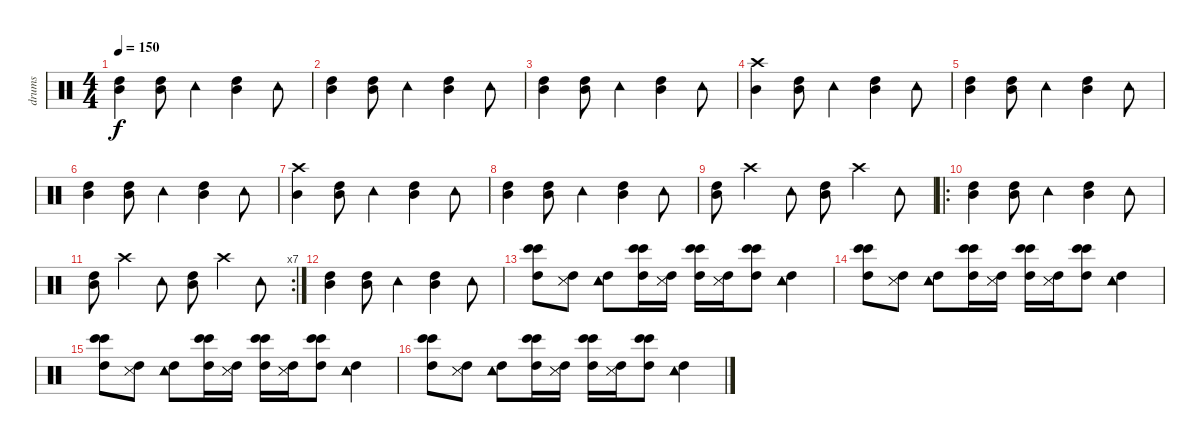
\track ("drums" "drums") {instrument percussion}
\staff {score}
\articulation defaults
\ts (4 4)
\tempo 150
\clef neutral
\ks c
("High Tom (hit)" "Mid Tom (hit)").4{dy f} ("High Tom (hit)" "Mid Tom (hit)").8 "Tambourine (hit)".4 ("High Tom (hit)" "Mid Tom (hit)").4 "Tambourine (hit)".8 |
("High Tom (hit)" "Mid Tom (hit)").4 ("High Tom (hit)" "Mid Tom (hit)").8 "Tambourine (hit)".4 ("High Tom (hit)" "Mid Tom (hit)").4 "Tambourine (hit)".8 |
("High Tom (hit)" "Mid Tom (hit)").4 ("High Tom (hit)" "Mid Tom (hit)").8 "Tambourine (hit)".4 ("High Tom (hit)" "Mid Tom (hit)").4 "Tambourine (hit)".8 |
("Crash high (hit)" "Mid Tom (hit)").4 ("High Tom (hit)" "Mid Tom (hit)").8 "Tambourine (hit)".4 ("High Tom (hit)" "Mid Tom (hit)").4 "Tambourine (hit)".8 |
("High Tom (hit)" "Mid Tom (hit)").4 ("High Tom (hit)" "Mid Tom (hit)").8 "Tambourine (hit)".4 ("High Tom (hit)" "Mid Tom (hit)").4 "Tambourine (hit)".8 |
("High Tom (hit)" "Mid Tom (hit)").4 ("High Tom (hit)" "Mid Tom (hit)").8 "Tambourine (hit)".4 ("High Tom (hit)" "Mid Tom (hit)").4 "Tambourine (hit)".8 |
("Crash high (hit)" "Mid Tom (hit)").4 ("High Tom (hit)" "Mid Tom (hit)").8 "Tambourine (hit)".4 ("High Tom (hit)" "Mid Tom (hit)").4 "Tambourine (hit)".8 |
("High Tom (hit)" "Mid Tom (hit)").4 ("High Tom (hit)" "Mid Tom (hit)").8 "Tambourine (hit)".4 ("High Tom (hit)" "Mid Tom (hit)").4 "Tambourine (hit)".8 |
("High Tom (hit)" "Mid Tom (hit)").8 "Crash high (hit)".4 "Tambourine (hit)".8 ("High Tom (hit)" "Mid Tom (hit)").8 "Crash high (hit)".4 "Tambourine (hit)".8 |
\ro
("High Tom (hit)" "Mid Tom (hit)").4 ("High Tom (hit)" "Mid Tom (hit)").8 "Tambourine (hit)".4 ("High Tom (hit)" "Mid Tom (hit)").4 "Tambourine (hit)".8 |
\rc 7
("High Tom (hit)" "Mid Tom (hit)").8 "Crash high (hit)".4 "Tambourine (hit)".8 ("High Tom (hit)" "Mid Tom (hit)").8 "Crash high (hit)".4 "Tambourine (hit)".8 |
("High Tom (hit)" "Mid Tom (hit)").4 ("High Tom (hit)" "Mid Tom (hit)").8 "Tambourine (hit)".4 ("High Tom (hit)" "Mid Tom (hit)").4 "Tambourine (hit)".8 |
("Bongo High (hit)" "High Tom (hit)" "Bongo High (hit)").8 ("Snare (side stick) 3" "High Tom (hit)" "Snare (side stick) 3").8 ("Tambourine (hit)" "High Tom (hit)" "Tambourine (hit)").8 ("Bongo High (hit)" "High Tom (hit)" "Bongo High (hit)").16 ("Snare (side stick) 3" "High Tom (hit)" "Snare (side stick) 3").16 ("Bongo High (hit)" "High Tom (hit)" "Bongo High (hit)").16 ("Snare (side stick) 3" "High Tom (hit)" "Snare (side stick) 3").16 ("Bongo High (hit)" "High Tom (hit)" "Bongo High (hit)").8 ("Tambourine (hit)" "High Tom (hit)" "Tambourine (hit)").4 |
("Bongo High (hit)" "High Tom (hit)" "Bongo High (hit)").8 ("Snare (side stick) 3" "High Tom (hit)" "Snare (side stick) 3").8 ("Tambourine (hit)" "High Tom (hit)" "Tambourine (hit)").8 ("Bongo High (hit)" "High Tom (hit)" "Bongo High (hit)").16 ("Snare (side stick) 3" "High Tom (hit)" "Snare (side stick) 3").16 ("Bongo High (hit)" "High Tom (hit)" "Bongo High (hit)").16 ("Snare (side stick) 3" "High Tom (hit)" "Snare (side stick) 3").16 ("Bongo High (hit)" "High Tom (hit)" "Bongo High (hit)").8 ("Tambourine (hit)" "High Tom (hit)" "Tambourine (hit)").4 |
("Bongo High (hit)" "High Tom (hit)" "Bongo High (hit)").8 ("Snare (side stick) 3" "High Tom (hit)" "Snare (side stick) 3").8 ("Tambourine (hit)" "High Tom (hit)" "Tambourine (hit)").8 ("Bongo High (hit)" "High Tom (hit)" "Bongo High (hit)").16 ("Snare (side stick) 3" "High Tom (hit)" "Snare (side stick) 3").16 ("Bongo High (hit)" "High Tom (hit)" "Bongo High (hit)").16 ("Snare (side stick) 3" "High Tom (hit)" "Snare (side stick) 3").16 ("Bongo High (hit)" "High Tom (hit)" "Bongo High (hit)").8 ("Tambourine (hit)" "High Tom (hit)" "Tambourine (hit)").4 |
("Bongo High (hit)" "High Tom (hit)" "Bongo High (hit)").8 ("Snare (side stick) 3" "High Tom (hit)" "Snare (side stick) 3").8 ("Tambourine (hit)" "High Tom (hit)" "Tambourine (hit)").8 ("Bongo High (hit)" "High Tom (hit)" "Bongo High (hit)").16 ("Snare (side stick) 3" "High Tom (hit)" "Snare (side stick) 3").16 ("Bongo High (hit)" "High Tom (hit)" "Bongo High (hit)").16 ("Snare (side stick) 3" "High Tom (hit)" "Snare (side stick) 3").16 ("Bongo High (hit)" "High Tom (hit)" "Bongo High (hit)").8 ("Tambourine (hit)" "High Tom (hit)" "Tambourine (hit)").4
